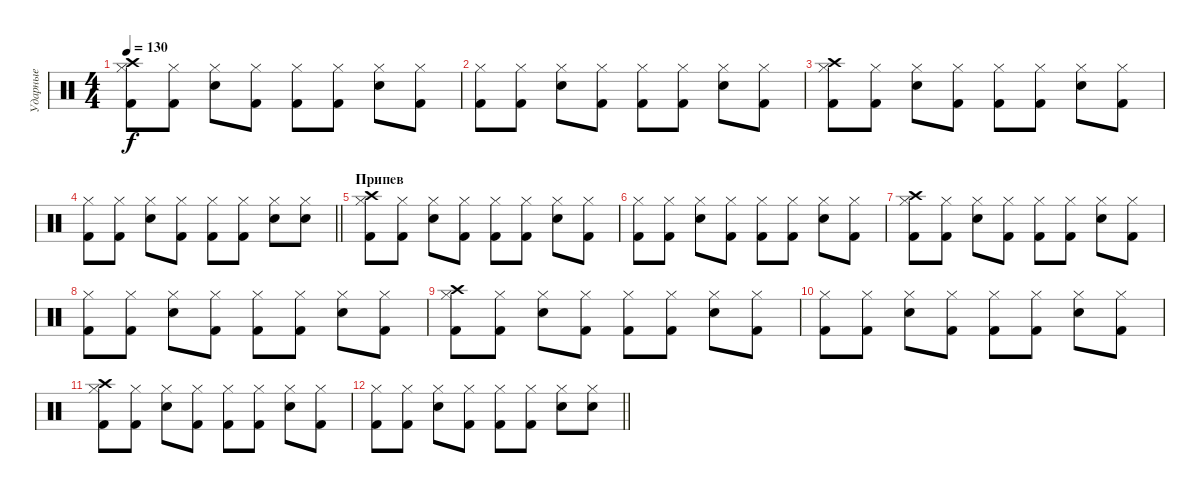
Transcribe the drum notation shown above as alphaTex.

\track ("Ударные" "Ударные") {instrument percussion}
\staff {score}
\articulation defaults
\ts (4 4)
\tempo 130
\clef neutral
\ks c
("Kick (hit) 2" "Crash high (hit)" "Hi-Hat (closed)").8{dy f} ("Kick (hit) 2" "Hi-Hat (closed)").8 ("Snare (hit) 2" "Hi-Hat (closed)").8 ("Kick (hit) 2" "Hi-Hat (closed)").8 ("Kick (hit) 2" "Hi-Hat (closed)").8 ("Kick (hit) 2" "Hi-Hat (closed)").8 ("Snare (hit) 2" "Hi-Hat (closed)").8 ("Kick (hit) 2" "Hi-Hat (closed)").8 |
("Kick (hit) 2" "Hi-Hat (closed)").8 ("Kick (hit) 2" "Hi-Hat (closed)").8 ("Snare (hit) 2" "Hi-Hat (closed)").8 ("Kick (hit) 2" "Hi-Hat (closed)").8 ("Kick (hit) 2" "Hi-Hat (closed)").8 ("Kick (hit) 2" "Hi-Hat (closed)").8 ("Snare (hit) 2" "Hi-Hat (closed)").8 ("Kick (hit) 2" "Hi-Hat (closed)").8 |
("Kick (hit) 2" "Crash high (hit)" "Hi-Hat (closed)").8 ("Kick (hit) 2" "Hi-Hat (closed)").8 ("Snare (hit) 2" "Hi-Hat (closed)").8 ("Kick (hit) 2" "Hi-Hat (closed)").8 ("Kick (hit) 2" "Hi-Hat (closed)").8 ("Kick (hit) 2" "Hi-Hat (closed)").8 ("Snare (hit) 2" "Hi-Hat (closed)").8 ("Kick (hit) 2" "Hi-Hat (closed)").8 |
\barLineRight lightlight
("Kick (hit) 2" "Hi-Hat (closed)").8 ("Kick (hit) 2" "Hi-Hat (closed)").8 ("Snare (hit) 2" "Hi-Hat (closed)").8 ("Kick (hit) 2" "Hi-Hat (closed)").8 ("Kick (hit) 2" "Hi-Hat (closed)").8 ("Kick (hit) 2" "Hi-Hat (closed)").8 ("Snare (hit) 2" "Hi-Hat (closed)").8 ("Snare (hit) 2" "Hi-Hat (closed)").8 |
\section ("" "Припев")
("Kick (hit) 2" "Crash high (hit)" "Hi-Hat (closed)").8 ("Kick (hit) 2" "Hi-Hat (closed)").8 ("Snare (hit) 2" "Hi-Hat (closed)").8 ("Kick (hit) 2" "Hi-Hat (closed)").8 ("Kick (hit) 2" "Hi-Hat (closed)").8 ("Kick (hit) 2" "Hi-Hat (closed)").8 ("Snare (hit) 2" "Hi-Hat (closed)").8 ("Kick (hit) 2" "Hi-Hat (closed)").8 |
("Kick (hit) 2" "Hi-Hat (closed)").8 ("Kick (hit) 2" "Hi-Hat (closed)").8 ("Snare (hit) 2" "Hi-Hat (closed)").8 ("Kick (hit) 2" "Hi-Hat (closed)").8 ("Kick (hit) 2" "Hi-Hat (closed)").8 ("Kick (hit) 2" "Hi-Hat (closed)").8 ("Snare (hit) 2" "Hi-Hat (closed)").8 ("Kick (hit) 2" "Hi-Hat (closed)").8 |
("Kick (hit) 2" "Crash high (hit)" "Hi-Hat (closed)").8 ("Kick (hit) 2" "Hi-Hat (closed)").8 ("Snare (hit) 2" "Hi-Hat (closed)").8 ("Kick (hit) 2" "Hi-Hat (closed)").8 ("Kick (hit) 2" "Hi-Hat (closed)").8 ("Kick (hit) 2" "Hi-Hat (closed)").8 ("Snare (hit) 2" "Hi-Hat (closed)").8 ("Kick (hit) 2" "Hi-Hat (closed)").8 |
("Kick (hit) 2" "Hi-Hat (closed)").8 ("Kick (hit) 2" "Hi-Hat (closed)").8 ("Snare (hit) 2" "Hi-Hat (closed)").8 ("Kick (hit) 2" "Hi-Hat (closed)").8 ("Kick (hit) 2" "Hi-Hat (closed)").8 ("Kick (hit) 2" "Hi-Hat (closed)").8 ("Snare (hit) 2" "Hi-Hat (closed)").8 ("Kick (hit) 2" "Hi-Hat (closed)").8 |
("Kick (hit) 2" "Crash high (hit)" "Hi-Hat (closed)").8{volume 9} ("Kick (hit) 2" "Hi-Hat (closed)").8 ("Snare (hit) 2" "Hi-Hat (closed)").8 ("Kick (hit) 2" "Hi-Hat (closed)").8 ("Kick (hit) 2" "Hi-Hat (closed)").8 ("Kick (hit) 2" "Hi-Hat (closed)").8 ("Snare (hit) 2" "Hi-Hat (closed)").8 ("Kick (hit) 2" "Hi-Hat (closed)").8 |
("Kick (hit) 2" "Hi-Hat (closed)").8{volume 7} ("Kick (hit) 2" "Hi-Hat (closed)").8 ("Snare (hit) 2" "Hi-Hat (closed)").8 ("Kick (hit) 2" "Hi-Hat (closed)").8 ("Kick (hit) 2" "Hi-Hat (closed)").8 ("Kick (hit) 2" "Hi-Hat (closed)").8 ("Snare (hit) 2" "Hi-Hat (closed)").8 ("Kick (hit) 2" "Hi-Hat (closed)").8 |
("Kick (hit) 2" "Crash high (hit)" "Hi-Hat (closed)").8{volume 5} ("Kick (hit) 2" "Hi-Hat (closed)").8 ("Snare (hit) 2" "Hi-Hat (closed)").8 ("Kick (hit) 2" "Hi-Hat (closed)").8 ("Kick (hit) 2" "Hi-Hat (closed)").8 ("Kick (hit) 2" "Hi-Hat (closed)").8 ("Snare (hit) 2" "Hi-Hat (closed)").8 ("Kick (hit) 2" "Hi-Hat (closed)").8 |
\barLineRight lightlight
("Kick (hit) 2" "Hi-Hat (closed)").8{volume 3} ("Kick (hit) 2" "Hi-Hat (closed)").8 ("Snare (hit) 2" "Hi-Hat (closed)").8 ("Kick (hit) 2" "Hi-Hat (closed)").8 ("Kick (hit) 2" "Hi-Hat (closed)").8 ("Kick (hit) 2" "Hi-Hat (closed)").8 ("Snare (hit) 2" "Hi-Hat (closed)").8 ("Snare (hit) 2" "Hi-Hat (closed)").8
